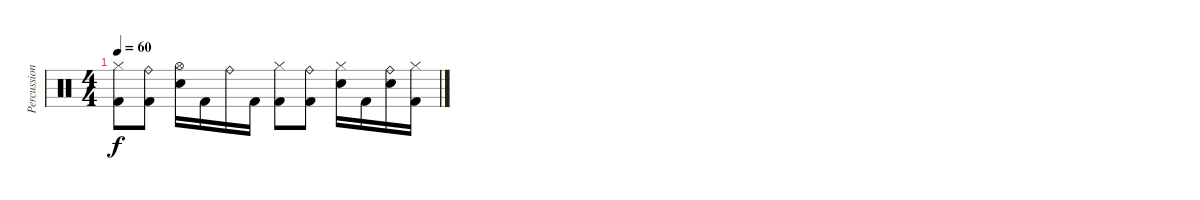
\track ("Percussions" "Percussion") {instrument percussion}
\staff {score}
\articulation defaults
\ts (4 4)
\tempo 60
\clef neutral
\ks c
("Hi-Hat (closed)" "Kick (hit) 2").8{dy f} ("Ride (bell)" "Kick (hit) 2").8 ("Hi-Hat (open)" "Electric Snare (hit)").16 "Kick (hit) 2".16 "Ride (bell)".16 "Kick (hit) 2".16 ("Hi-Hat (closed)" "Kick (hit) 2").8 ("Ride (bell)" "Kick (hit) 2").8 ("Hi-Hat (closed)" "Electric Snare (hit)").16 "Kick (hit) 2".16 ("Ride (bell)" "Electric Snare (hit)").16 ("Hi-Hat (closed)" "Kick (hit) 2").16
